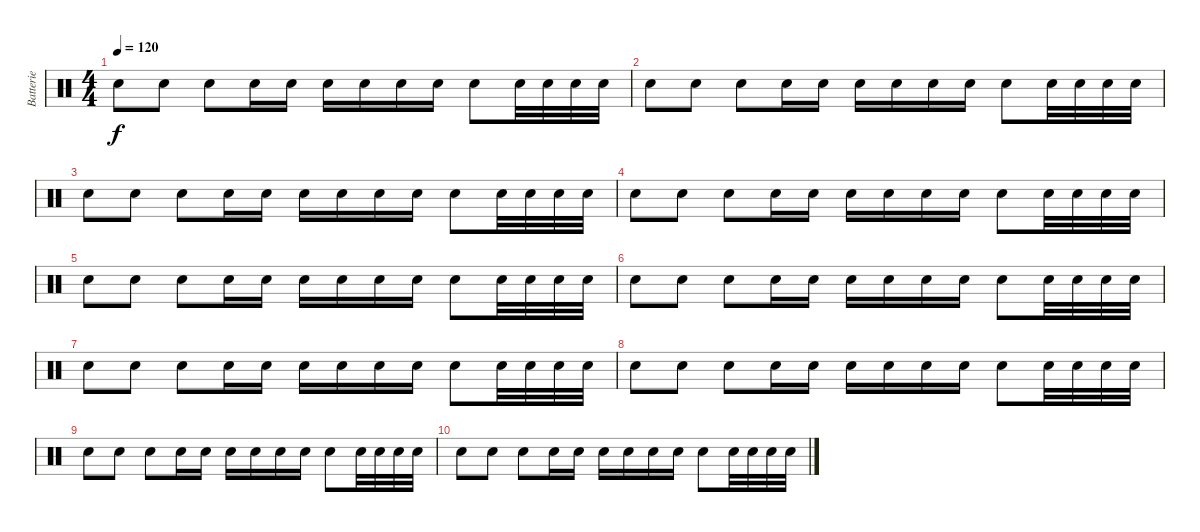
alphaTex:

\track ("Batterie" "Batterie") {instrument percussion}
\staff {score}
\articulation defaults
\ts (4 4)
\tempo 120
\clef neutral
\ks c "Electric Snare (hit)".8{dy f} "Electric Snare (hit)".8 "Electric Snare (hit)".8 "Electric Snare (hit)".16 "Electric Snare (hit)".16 "Electric Snare (hit)".16 "Electric Snare (hit)".16 "Electric Snare (hit)".16 "Electric Snare (hit)".16 "Electric Snare (hit)".8 "Electric Snare (hit)".32 "Electric Snare (hit)".32 "Electric Snare (hit)".32 "Electric Snare (hit)".32
|
"Electric Snare (hit)".8 "Electric Snare (hit)".8 "Electric Snare (hit)".8 "Electric Snare (hit)".16 "Electric Snare (hit)".16 "Electric Snare (hit)".16 "Electric Snare (hit)".16 "Electric Snare (hit)".16 "Electric Snare (hit)".16 "Electric Snare (hit)".8 "Electric Snare (hit)".32 "Electric Snare (hit)".32 "Electric Snare (hit)".32 "Electric Snare (hit)".32 |
"Electric Snare (hit)".8 "Electric Snare (hit)".8 "Electric Snare (hit)".8 "Electric Snare (hit)".16 "Electric Snare (hit)".16 "Electric Snare (hit)".16 "Electric Snare (hit)".16 "Electric Snare (hit)".16 "Electric Snare (hit)".16 "Electric Snare (hit)".8 "Electric Snare (hit)".32 "Electric Snare (hit)".32 "Electric Snare (hit)".32 "Electric Snare (hit)".32 |
"Electric Snare (hit)".8 "Electric Snare (hit)".8 "Electric Snare (hit)".8 "Electric Snare (hit)".16 "Electric Snare (hit)".16 "Electric Snare (hit)".16 "Electric Snare (hit)".16 "Electric Snare (hit)".16 "Electric Snare (hit)".16 "Electric Snare (hit)".8 "Electric Snare (hit)".32 "Electric Snare (hit)".32 "Electric Snare (hit)".32 "Electric Snare (hit)".32 |
"Electric Snare (hit)".8 "Electric Snare (hit)".8 "Electric Snare (hit)".8 "Electric Snare (hit)".16 "Electric Snare (hit)".16 "Electric Snare (hit)".16 "Electric Snare (hit)".16 "Electric Snare (hit)".16 "Electric Snare (hit)".16 "Electric Snare (hit)".8 "Electric Snare (hit)".32 "Electric Snare (hit)".32 "Electric Snare (hit)".32 "Electric Snare (hit)".32 |
"Electric Snare (hit)".8 "Electric Snare (hit)".8 "Electric Snare (hit)".8 "Electric Snare (hit)".16 "Electric Snare (hit)".16 "Electric Snare (hit)".16 "Electric Snare (hit)".16 "Electric Snare (hit)".16 "Electric Snare (hit)".16 "Electric Snare (hit)".8 "Electric Snare (hit)".32 "Electric Snare (hit)".32 "Electric Snare (hit)".32 "Electric Snare (hit)".32 |
"Electric Snare (hit)".8 "Electric Snare (hit)".8 "Electric Snare (hit)".8 "Electric Snare (hit)".16 "Electric Snare (hit)".16 "Electric Snare (hit)".16 "Electric Snare (hit)".16 "Electric Snare (hit)".16 "Electric Snare (hit)".16 "Electric Snare (hit)".8 "Electric Snare (hit)".32 "Electric Snare (hit)".32 "Electric Snare (hit)".32 "Electric Snare (hit)".32 |
"Electric Snare (hit)".8 "Electric Snare (hit)".8 "Electric Snare (hit)".8 "Electric Snare (hit)".16 "Electric Snare (hit)".16 "Electric Snare (hit)".16 "Electric Snare (hit)".16 "Electric Snare (hit)".16 "Electric Snare (hit)".16 "Electric Snare (hit)".8 "Electric Snare (hit)".32 "Electric Snare (hit)".32 "Electric Snare (hit)".32 "Electric Snare (hit)".32 |
"Electric Snare (hit)".8 "Electric Snare (hit)".8 "Electric Snare (hit)".8 "Electric Snare (hit)".16 "Electric Snare (hit)".16 "Electric Snare (hit)".16 "Electric Snare (hit)".16 "Electric Snare (hit)".16 "Electric Snare (hit)".16 "Electric Snare (hit)".8 "Electric Snare (hit)".32 "Electric Snare (hit)".32 "Electric Snare (hit)".32 "Electric Snare (hit)".32 |
"Electric Snare (hit)".8 "Electric Snare (hit)".8 "Electric Snare (hit)".8 "Electric Snare (hit)".16 "Electric Snare (hit)".16 "Electric Snare (hit)".16 "Electric Snare (hit)".16 "Electric Snare (hit)".16 "Electric Snare (hit)".16 "Electric Snare (hit)".8 "Electric Snare (hit)".32 "Electric Snare (hit)".32 "Electric Snare (hit)".32 "Electric Snare (hit)".32
